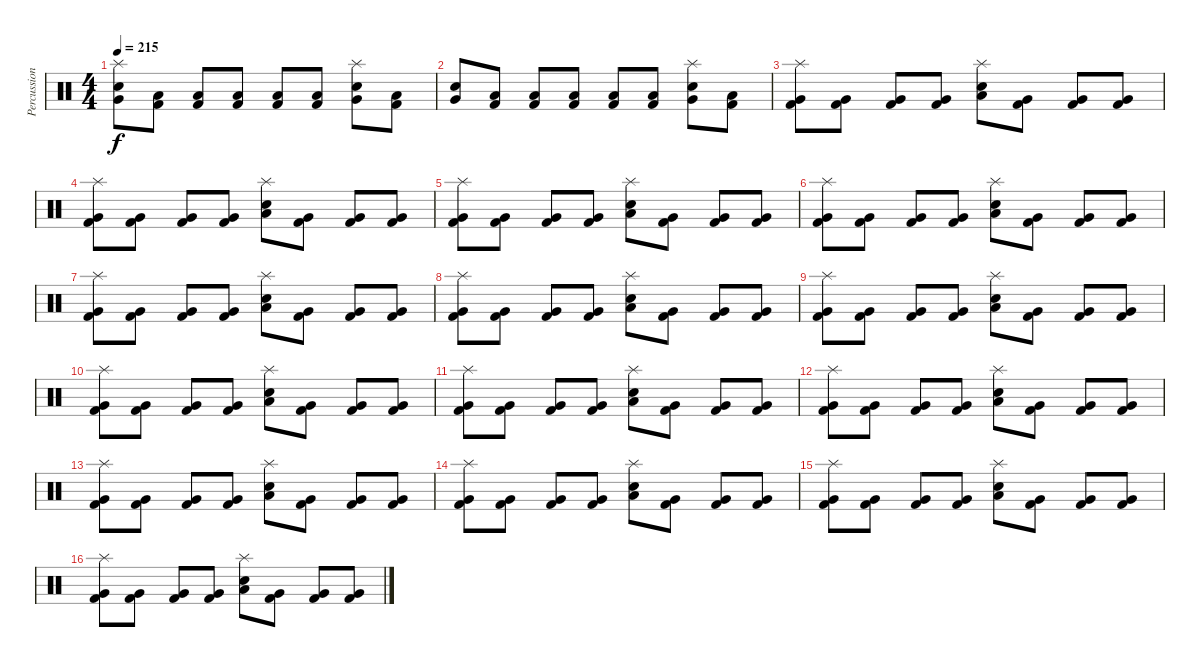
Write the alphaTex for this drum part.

\track ("Percussion" "Percussion") {instrument percussion}
\staff {score}
\articulation defaults
\ts (4 4)
\tempo 215
\clef neutral
\ks c
("Splash (hit)" "Electric Snare (hit)" "Very Low Tom (hit)").8{dy f} ("Kick (hit) 2" "Low Floor Tom (hit)").8 ("Kick (hit) 2" "Low Floor Tom (hit)").8 ("Kick (hit) 2" "Low Floor Tom (hit)").8 ("Kick (hit) 2" "Low Floor Tom (hit)").8 ("Kick (hit) 2" "Low Floor Tom (hit)").8 ("Splash (hit)" "Electric Snare (hit)" "Very Low Tom (hit)").8 ("Kick (hit) 2" "Low Floor Tom (hit)").8 |
("Electric Snare (hit)" "Very Low Tom (hit)").8 ("Kick (hit) 2" "Low Floor Tom (hit)").8 ("Kick (hit) 2" "Low Floor Tom (hit)").8 ("Kick (hit) 2" "Low Floor Tom (hit)").8 ("Kick (hit) 2" "Low Floor Tom (hit)").8 ("Kick (hit) 2" "Low Floor Tom (hit)").8 ("Splash (hit)" "Electric Snare (hit)" "Very Low Tom (hit)").8 ("Kick (hit) 2" "Low Floor Tom (hit)").8 |
("Splash (hit)" "Kick (hit) 2" "Very Low Tom (hit)").8 ("Kick (hit) 2" "Very Low Tom (hit)").8 ("Kick (hit) 2" "Very Low Tom (hit)").8 ("Kick (hit) 2" "Very Low Tom (hit)").8 ("Splash (hit)" "Low Floor Tom (hit)" "Electric Snare (hit)").8 ("Kick (hit) 2" "Very Low Tom (hit)").8 ("Kick (hit) 2" "Very Low Tom (hit)").8 ("Kick (hit) 2" "Very Low Tom (hit)").8 |
("Splash (hit)" "Kick (hit) 2" "Very Low Tom (hit)").8 ("Kick (hit) 2" "Very Low Tom (hit)").8 ("Kick (hit) 2" "Very Low Tom (hit)").8 ("Kick (hit) 2" "Very Low Tom (hit)").8 ("Splash (hit)" "Low Floor Tom (hit)" "Electric Snare (hit)").8 ("Kick (hit) 2" "Very Low Tom (hit)").8 ("Kick (hit) 2" "Very Low Tom (hit)").8 ("Kick (hit) 2" "Very Low Tom (hit)").8 |
("Splash (hit)" "Kick (hit) 2" "Very Low Tom (hit)").8 ("Kick (hit) 2" "Very Low Tom (hit)").8 ("Kick (hit) 2" "Very Low Tom (hit)").8 ("Kick (hit) 2" "Very Low Tom (hit)").8 ("Splash (hit)" "Low Floor Tom (hit)" "Electric Snare (hit)").8 ("Kick (hit) 2" "Very Low Tom (hit)").8 ("Kick (hit) 2" "Very Low Tom (hit)").8 ("Kick (hit) 2" "Very Low Tom (hit)").8 |
("Splash (hit)" "Kick (hit) 2" "Very Low Tom (hit)").8 ("Kick (hit) 2" "Very Low Tom (hit)").8 ("Kick (hit) 2" "Very Low Tom (hit)").8 ("Kick (hit) 2" "Very Low Tom (hit)").8 ("Splash (hit)" "Low Floor Tom (hit)" "Electric Snare (hit)").8 ("Kick (hit) 2" "Very Low Tom (hit)").8 ("Kick (hit) 2" "Very Low Tom (hit)").8 ("Kick (hit) 2" "Very Low Tom (hit)").8 |
("Splash (hit)" "Kick (hit) 2" "Very Low Tom (hit)").8 ("Kick (hit) 2" "Very Low Tom (hit)").8 ("Kick (hit) 2" "Very Low Tom (hit)").8 ("Kick (hit) 2" "Very Low Tom (hit)").8 ("Splash (hit)" "Low Floor Tom (hit)" "Electric Snare (hit)").8 ("Kick (hit) 2" "Very Low Tom (hit)").8 ("Kick (hit) 2" "Very Low Tom (hit)").8 ("Kick (hit) 2" "Very Low Tom (hit)").8 |
("Splash (hit)" "Kick (hit) 2" "Very Low Tom (hit)").8 ("Kick (hit) 2" "Very Low Tom (hit)").8 ("Kick (hit) 2" "Very Low Tom (hit)").8 ("Kick (hit) 2" "Very Low Tom (hit)").8 ("Splash (hit)" "Low Floor Tom (hit)" "Electric Snare (hit)").8 ("Kick (hit) 2" "Very Low Tom (hit)").8 ("Kick (hit) 2" "Very Low Tom (hit)").8 ("Kick (hit) 2" "Very Low Tom (hit)").8 |
("Splash (hit)" "Kick (hit) 2" "Very Low Tom (hit)").8 ("Kick (hit) 2" "Very Low Tom (hit)").8 ("Kick (hit) 2" "Very Low Tom (hit)").8 ("Kick (hit) 2" "Very Low Tom (hit)").8 ("Splash (hit)" "Low Floor Tom (hit)" "Electric Snare (hit)").8 ("Kick (hit) 2" "Very Low Tom (hit)").8 ("Kick (hit) 2" "Very Low Tom (hit)").8 ("Kick (hit) 2" "Very Low Tom (hit)").8 |
("Splash (hit)" "Kick (hit) 2" "Very Low Tom (hit)").8 ("Kick (hit) 2" "Very Low Tom (hit)").8 ("Kick (hit) 2" "Very Low Tom (hit)").8 ("Kick (hit) 2" "Very Low Tom (hit)").8 ("Splash (hit)" "Low Floor Tom (hit)" "Electric Snare (hit)").8 ("Kick (hit) 2" "Very Low Tom (hit)").8 ("Kick (hit) 2" "Very Low Tom (hit)").8 ("Kick (hit) 2" "Very Low Tom (hit)").8 |
("Splash (hit)" "Kick (hit) 2" "Very Low Tom (hit)").8 ("Kick (hit) 2" "Very Low Tom (hit)").8 ("Kick (hit) 2" "Very Low Tom (hit)").8 ("Kick (hit) 2" "Very Low Tom (hit)").8 ("Splash (hit)" "Low Floor Tom (hit)" "Electric Snare (hit)").8 ("Kick (hit) 2" "Very Low Tom (hit)").8 ("Kick (hit) 2" "Very Low Tom (hit)").8 ("Kick (hit) 2" "Very Low Tom (hit)").8 |
("Splash (hit)" "Kick (hit) 2" "Very Low Tom (hit)").8 ("Kick (hit) 2" "Very Low Tom (hit)").8 ("Kick (hit) 2" "Very Low Tom (hit)").8 ("Kick (hit) 2" "Very Low Tom (hit)").8 ("Splash (hit)" "Low Floor Tom (hit)" "Electric Snare (hit)").8 ("Kick (hit) 2" "Very Low Tom (hit)").8 ("Kick (hit) 2" "Very Low Tom (hit)").8 ("Kick (hit) 2" "Very Low Tom (hit)").8 |
("Splash (hit)" "Kick (hit) 2" "Very Low Tom (hit)").8 ("Kick (hit) 2" "Very Low Tom (hit)").8 ("Kick (hit) 2" "Very Low Tom (hit)").8 ("Kick (hit) 2" "Very Low Tom (hit)").8 ("Splash (hit)" "Low Floor Tom (hit)" "Electric Snare (hit)").8 ("Kick (hit) 2" "Very Low Tom (hit)").8 ("Kick (hit) 2" "Very Low Tom (hit)").8 ("Kick (hit) 2" "Very Low Tom (hit)").8 |
("Splash (hit)" "Kick (hit) 2" "Very Low Tom (hit)").8 ("Kick (hit) 2" "Very Low Tom (hit)").8 ("Kick (hit) 2" "Very Low Tom (hit)").8 ("Kick (hit) 2" "Very Low Tom (hit)").8 ("Splash (hit)" "Low Floor Tom (hit)" "Electric Snare (hit)").8 ("Kick (hit) 2" "Very Low Tom (hit)").8 ("Kick (hit) 2" "Very Low Tom (hit)").8 ("Kick (hit) 2" "Very Low Tom (hit)").8 |
("Splash (hit)" "Kick (hit) 2" "Very Low Tom (hit)").8 ("Kick (hit) 2" "Very Low Tom (hit)").8 ("Kick (hit) 2" "Very Low Tom (hit)").8 ("Kick (hit) 2" "Very Low Tom (hit)").8 ("Splash (hit)" "Low Floor Tom (hit)" "Electric Snare (hit)").8 ("Kick (hit) 2" "Very Low Tom (hit)").8 ("Kick (hit) 2" "Very Low Tom (hit)").8 ("Kick (hit) 2" "Very Low Tom (hit)").8 |
("Splash (hit)" "Kick (hit) 2" "Very Low Tom (hit)").8 ("Kick (hit) 2" "Very Low Tom (hit)").8 ("Kick (hit) 2" "Very Low Tom (hit)").8 ("Kick (hit) 2" "Very Low Tom (hit)").8 ("Splash (hit)" "Low Floor Tom (hit)" "Electric Snare (hit)").8 ("Kick (hit) 2" "Very Low Tom (hit)").8 ("Kick (hit) 2" "Very Low Tom (hit)").8 ("Kick (hit) 2" "Very Low Tom (hit)").8
